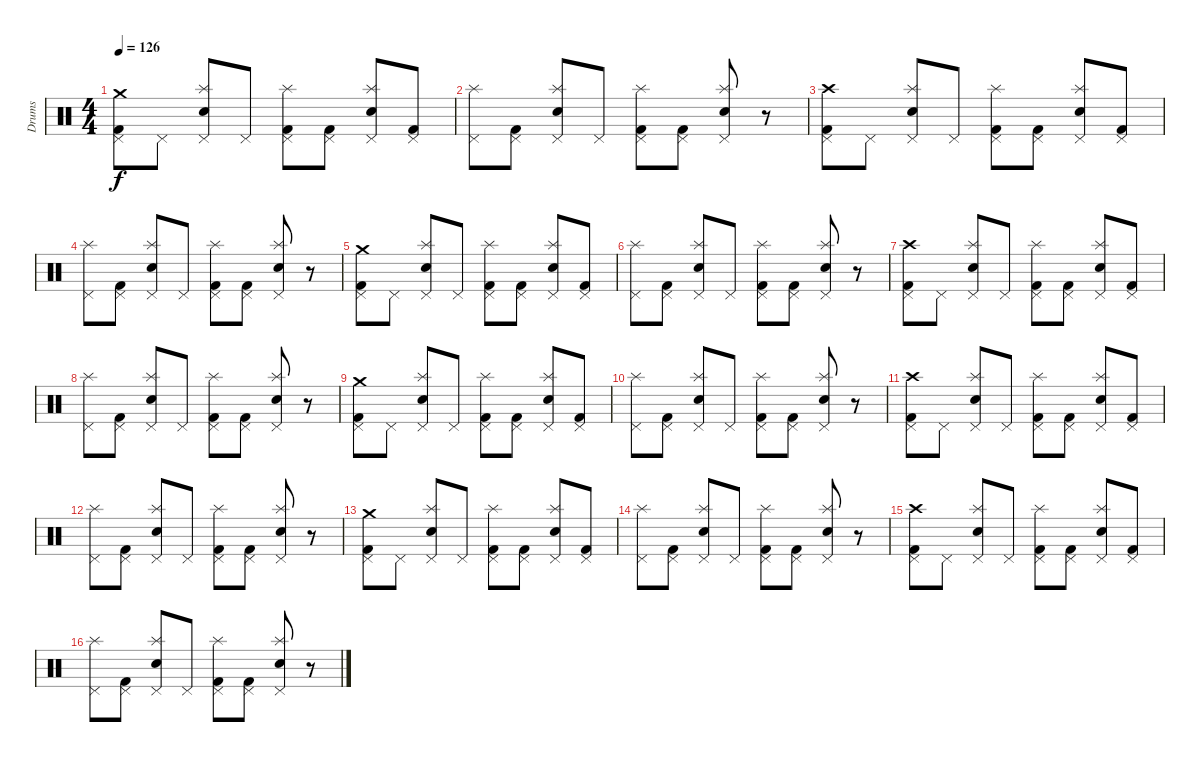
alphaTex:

\track ("Drums" "Drums") {instrument percussion}
\staff {score}
\articulation defaults
\ts (4 4)
\tempo 126
\clef neutral
\ks c
("Pedal Hi-Hat (hit)" "Kick (hit) 2" "Crash medium (hit)").8{dy f} "Pedal Hi-Hat (hit)".8 ("Pedal Hi-Hat (hit)" "Splash (hit)" "Electric Snare (hit)").8 "Pedal Hi-Hat (hit)".8 ("Pedal Hi-Hat (hit)" "Splash (hit)" "Kick (hit) 2").8 ("Pedal Hi-Hat (hit)" "Kick (hit) 2").8 ("Pedal Hi-Hat (hit)" "Splash (hit)" "Electric Snare (hit)").8 ("Pedal Hi-Hat (hit)" "Kick (hit) 2").8 |
("Pedal Hi-Hat (hit)" "Splash (hit)").8 ("Pedal Hi-Hat (hit)" "Kick (hit) 2").8 ("Pedal Hi-Hat (hit)" "Splash (hit)" "Electric Snare (hit)").8 "Pedal Hi-Hat (hit)".8 ("Pedal Hi-Hat (hit)" "Splash (hit)" "Kick (hit) 2").8 ("Pedal Hi-Hat (hit)" "Kick (hit) 2").8 ("Pedal Hi-Hat (hit)" "Splash (hit)" "Electric Snare (hit)").8 r.8 |
("Pedal Hi-Hat (hit)" "Kick (hit) 2" "Crash high (hit)").8 "Pedal Hi-Hat (hit)".8 ("Pedal Hi-Hat (hit)" "Electric Snare (hit)" "Splash (hit)").8 "Pedal Hi-Hat (hit)".8 ("Pedal Hi-Hat (hit)" "Kick (hit) 2" "Splash (hit)").8 ("Kick (hit) 2" "Pedal Hi-Hat (hit)").8 ("Splash (hit)" "Electric Snare (hit)" "Pedal Hi-Hat (hit)").8 ("Pedal Hi-Hat (hit)" "Kick (hit) 2").8 |
("Splash (hit)" "Pedal Hi-Hat (hit)").8 ("Kick (hit) 2" "Pedal Hi-Hat (hit)").8 ("Splash (hit)" "Electric Snare (hit)" "Pedal Hi-Hat (hit)").8 "Pedal Hi-Hat (hit)".8 ("Splash (hit)" "Kick (hit) 2" "Pedal Hi-Hat (hit)").8 ("Pedal Hi-Hat (hit)" "Kick (hit) 2").8 ("Pedal Hi-Hat (hit)" "Electric Snare (hit)" "Splash (hit)").8 r.8 |
("Pedal Hi-Hat (hit)" "Kick (hit) 2" "Crash medium (hit)").8 "Pedal Hi-Hat (hit)".8 ("Pedal Hi-Hat (hit)" "Splash (hit)" "Electric Snare (hit)").8 "Pedal Hi-Hat (hit)".8 ("Pedal Hi-Hat (hit)" "Splash (hit)" "Kick (hit) 2").8 ("Pedal Hi-Hat (hit)" "Kick (hit) 2").8 ("Pedal Hi-Hat (hit)" "Splash (hit)" "Electric Snare (hit)").8 ("Pedal Hi-Hat (hit)" "Kick (hit) 2").8 |
("Pedal Hi-Hat (hit)" "Splash (hit)").8 ("Pedal Hi-Hat (hit)" "Kick (hit) 2").8 ("Pedal Hi-Hat (hit)" "Splash (hit)" "Electric Snare (hit)").8 "Pedal Hi-Hat (hit)".8 ("Pedal Hi-Hat (hit)" "Splash (hit)" "Kick (hit) 2").8 ("Pedal Hi-Hat (hit)" "Kick (hit) 2").8 ("Pedal Hi-Hat (hit)" "Splash (hit)" "Electric Snare (hit)").8 r.8 |
("Pedal Hi-Hat (hit)" "Kick (hit) 2" "Crash high (hit)").8 "Pedal Hi-Hat (hit)".8 ("Pedal Hi-Hat (hit)" "Electric Snare (hit)" "Splash (hit)").8 "Pedal Hi-Hat (hit)".8 ("Pedal Hi-Hat (hit)" "Kick (hit) 2" "Splash (hit)").8 ("Kick (hit) 2" "Pedal Hi-Hat (hit)").8 ("Splash (hit)" "Electric Snare (hit)" "Pedal Hi-Hat (hit)").8 ("Pedal Hi-Hat (hit)" "Kick (hit) 2").8 |
("Splash (hit)" "Pedal Hi-Hat (hit)").8 ("Kick (hit) 2" "Pedal Hi-Hat (hit)").8 ("Splash (hit)" "Electric Snare (hit)" "Pedal Hi-Hat (hit)").8 "Pedal Hi-Hat (hit)".8 ("Splash (hit)" "Kick (hit) 2" "Pedal Hi-Hat (hit)").8 ("Pedal Hi-Hat (hit)" "Kick (hit) 2").8 ("Pedal Hi-Hat (hit)" "Electric Snare (hit)" "Splash (hit)").8 r.8 |
("Pedal Hi-Hat (hit)" "Kick (hit) 2" "Crash medium (hit)").8 "Pedal Hi-Hat (hit)".8 ("Pedal Hi-Hat (hit)" "Splash (hit)" "Electric Snare (hit)").8 "Pedal Hi-Hat (hit)".8 ("Pedal Hi-Hat (hit)" "Splash (hit)" "Kick (hit) 2").8 ("Pedal Hi-Hat (hit)" "Kick (hit) 2").8 ("Pedal Hi-Hat (hit)" "Splash (hit)" "Electric Snare (hit)").8 ("Pedal Hi-Hat (hit)" "Kick (hit) 2").8 |
("Pedal Hi-Hat (hit)" "Splash (hit)").8 ("Pedal Hi-Hat (hit)" "Kick (hit) 2").8 ("Pedal Hi-Hat (hit)" "Splash (hit)" "Electric Snare (hit)").8 "Pedal Hi-Hat (hit)".8 ("Pedal Hi-Hat (hit)" "Splash (hit)" "Kick (hit) 2").8 ("Pedal Hi-Hat (hit)" "Kick (hit) 2").8 ("Pedal Hi-Hat (hit)" "Splash (hit)" "Electric Snare (hit)").8 r.8 |
("Pedal Hi-Hat (hit)" "Kick (hit) 2" "Crash high (hit)").8 "Pedal Hi-Hat (hit)".8 ("Pedal Hi-Hat (hit)" "Electric Snare (hit)" "Splash (hit)").8 "Pedal Hi-Hat (hit)".8 ("Pedal Hi-Hat (hit)" "Kick (hit) 2" "Splash (hit)").8 ("Kick (hit) 2" "Pedal Hi-Hat (hit)").8 ("Splash (hit)" "Electric Snare (hit)" "Pedal Hi-Hat (hit)").8 ("Pedal Hi-Hat (hit)" "Kick (hit) 2").8 |
("Splash (hit)" "Pedal Hi-Hat (hit)").8 ("Kick (hit) 2" "Pedal Hi-Hat (hit)").8 ("Splash (hit)" "Electric Snare (hit)" "Pedal Hi-Hat (hit)").8 "Pedal Hi-Hat (hit)".8 ("Splash (hit)" "Kick (hit) 2" "Pedal Hi-Hat (hit)").8 ("Pedal Hi-Hat (hit)" "Kick (hit) 2").8 ("Pedal Hi-Hat (hit)" "Electric Snare (hit)" "Splash (hit)").8 r.8 |
("Pedal Hi-Hat (hit)" "Kick (hit) 2" "Crash medium (hit)").8 "Pedal Hi-Hat (hit)".8 ("Pedal Hi-Hat (hit)" "Splash (hit)" "Electric Snare (hit)").8 "Pedal Hi-Hat (hit)".8 ("Pedal Hi-Hat (hit)" "Splash (hit)" "Kick (hit) 2").8 ("Pedal Hi-Hat (hit)" "Kick (hit) 2").8 ("Pedal Hi-Hat (hit)" "Splash (hit)" "Electric Snare (hit)").8 ("Pedal Hi-Hat (hit)" "Kick (hit) 2").8 |
("Pedal Hi-Hat (hit)" "Splash (hit)").8 ("Pedal Hi-Hat (hit)" "Kick (hit) 2").8 ("Pedal Hi-Hat (hit)" "Splash (hit)" "Electric Snare (hit)").8 "Pedal Hi-Hat (hit)".8 ("Pedal Hi-Hat (hit)" "Splash (hit)" "Kick (hit) 2").8 ("Pedal Hi-Hat (hit)" "Kick (hit) 2").8 ("Pedal Hi-Hat (hit)" "Splash (hit)" "Electric Snare (hit)").8 r.8 |
("Pedal Hi-Hat (hit)" "Kick (hit) 2" "Crash high (hit)").8 "Pedal Hi-Hat (hit)".8 ("Pedal Hi-Hat (hit)" "Electric Snare (hit)" "Splash (hit)").8 "Pedal Hi-Hat (hit)".8 ("Pedal Hi-Hat (hit)" "Kick (hit) 2" "Splash (hit)").8 ("Kick (hit) 2" "Pedal Hi-Hat (hit)").8 ("Splash (hit)" "Electric Snare (hit)" "Pedal Hi-Hat (hit)").8 ("Pedal Hi-Hat (hit)" "Kick (hit) 2").8 |
("Splash (hit)" "Pedal Hi-Hat (hit)").8 ("Kick (hit) 2" "Pedal Hi-Hat (hit)").8 ("Splash (hit)" "Electric Snare (hit)" "Pedal Hi-Hat (hit)").8 "Pedal Hi-Hat (hit)".8 ("Splash (hit)" "Kick (hit) 2" "Pedal Hi-Hat (hit)").8 ("Pedal Hi-Hat (hit)" "Kick (hit) 2").8 ("Pedal Hi-Hat (hit)" "Electric Snare (hit)" "Splash (hit)").8 r.8
